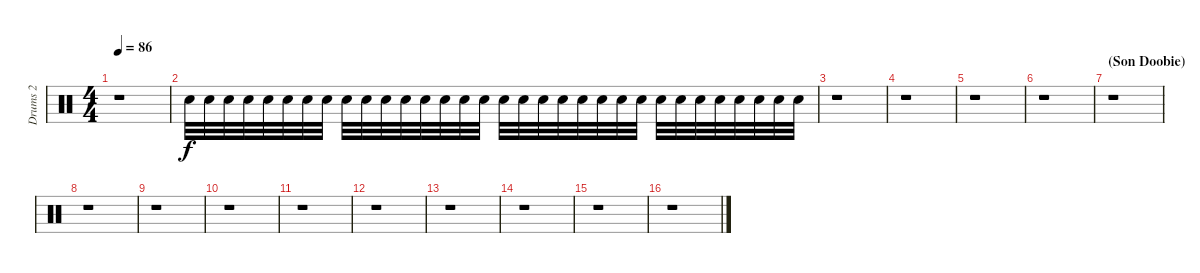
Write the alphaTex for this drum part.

\track ("Drums 2" "Drums 2") {instrument percussion}
\staff {score}
\articulation defaults
\ts (4 4)
\tempo 86
\clef neutral
\ks c
r.1{dy f} |
"Electric Snare (hit)".32 "Electric Snare (hit)".32 "Electric Snare (hit)".32 "Electric Snare (hit)".32 "Electric Snare (hit)".32 "Electric Snare (hit)".32 "Electric Snare (hit)".32 "Electric Snare (hit)".32 "Electric Snare (hit)".32 "Electric Snare (hit)".32 "Electric Snare (hit)".32 "Electric Snare (hit)".32 "Electric Snare (hit)".32 "Electric Snare (hit)".32 "Electric Snare (hit)".32 "Electric Snare (hit)".32 "Electric Snare (hit)".32 "Electric Snare (hit)".32 "Electric Snare (hit)".32 "Electric Snare (hit)".32 "Electric Snare (hit)".32 "Electric Snare (hit)".32 "Electric Snare (hit)".32 "Electric Snare (hit)".32 "Electric Snare (hit)".32 "Electric Snare (hit)".32 "Electric Snare (hit)".32 "Electric Snare (hit)".32 "Electric Snare (hit)".32 "Electric Snare (hit)".32 "Electric Snare (hit)".32 "Electric Snare (hit)".32 |
r.1 |
r.1 |
r.1 |
r.1 |
\section ("" "(Son Doobie)")
r.1 |
r.1 |
r.1 |
r.1 |
r.1 |
r.1 |
r.1 |
r.1 |
r.1 |
r.1
